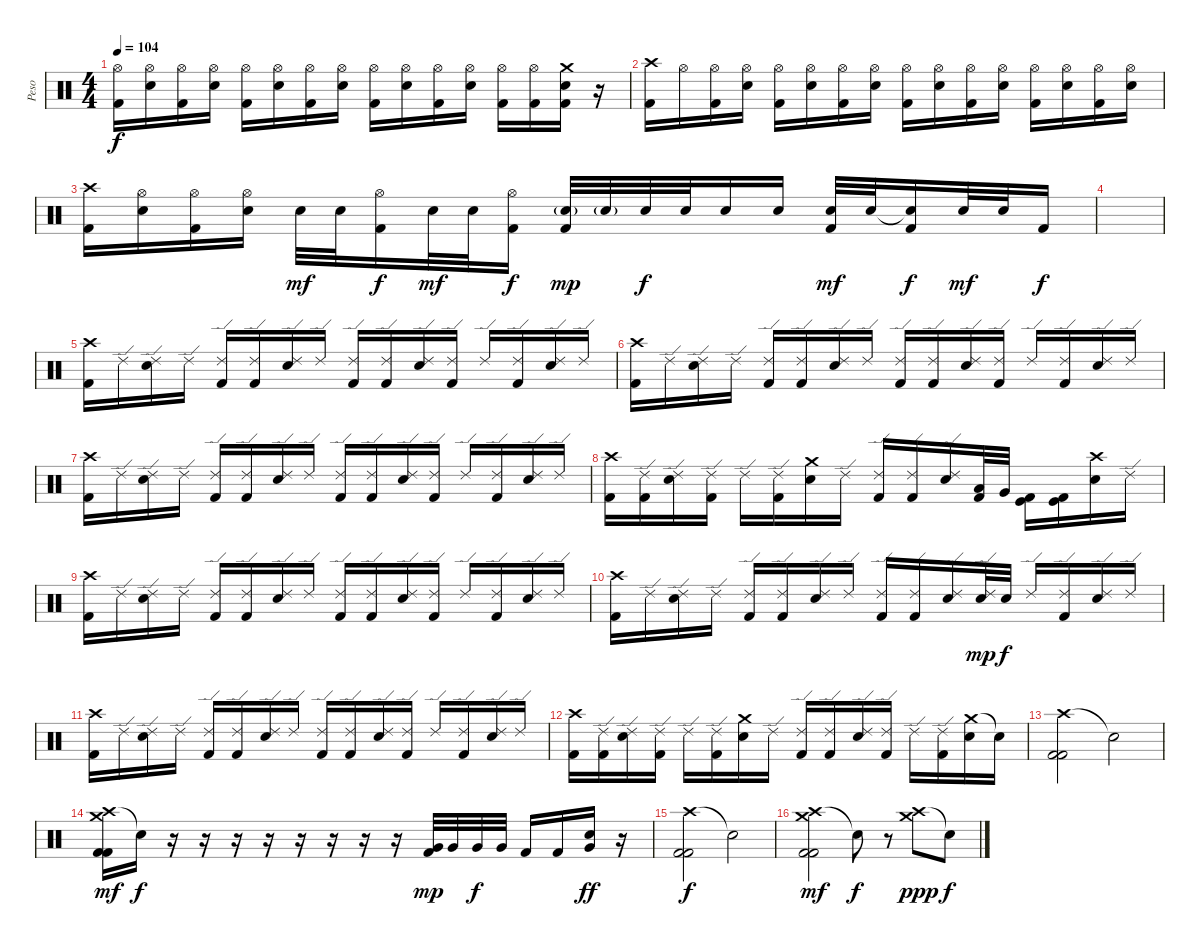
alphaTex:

\track ("Peso" "Peso") {instrument percussion}
\staff {score}
\articulation defaults
\ts (4 4)
\tempo 104
\clef neutral
\ks c
("Hi-Hat (open)" "Kick (hit) 2").16{dy f} ("Hi-Hat (open)" "Electric Snare (hit)").16 ("Hi-Hat (open)" "Kick (hit) 2").16 ("Hi-Hat (open)" "Electric Snare (hit)").16 ("Hi-Hat (open)" "Kick (hit) 2").16 ("Hi-Hat (open)" "Electric Snare (hit)").16 ("Hi-Hat (open)" "Kick (hit) 2").16 ("Hi-Hat (open)" "Electric Snare (hit)").16 ("Hi-Hat (open)" "Kick (hit) 2").16 ("Hi-Hat (open)" "Electric Snare (hit)").16 ("Hi-Hat (open)" "Kick (hit) 2").16 ("Hi-Hat (open)" "Electric Snare (hit)").16 ("Hi-Hat (open)" "Kick (hit) 2").16 ("Hi-Hat (open)" "Kick (hit) 2").16 ("Crash medium (hit)" "Electric Snare (hit)" "Kick (hit) 2").16 r.16 |
("Crash high (hit)" "Kick (hit) 2").16 "Hi-Hat (open)".16 ("Hi-Hat (open)" "Kick (hit) 2").16 ("Hi-Hat (open)" "Electric Snare (hit)").16 ("Hi-Hat (open)" "Kick (hit) 2").16 ("Hi-Hat (open)" "Electric Snare (hit)").16 ("Hi-Hat (open)" "Kick (hit) 2").16 ("Hi-Hat (open)" "Electric Snare (hit)").16 ("Hi-Hat (open)" "Kick (hit) 2").16 ("Hi-Hat (open)" "Electric Snare (hit)").16 ("Hi-Hat (open)" "Kick (hit) 2").16 ("Hi-Hat (open)" "Electric Snare (hit)").16 ("Hi-Hat (open)" "Kick (hit) 2").16 ("Hi-Hat (open)" "Electric Snare (hit)").16 ("Hi-Hat (open)" "Kick (hit) 2").16 ("Hi-Hat (open)" "Electric Snare (hit)").16 |
("Crash high (hit)" "Kick (hit) 2").16 ("Hi-Hat (open)" "Electric Snare (hit)").16 ("Hi-Hat (open)" "Kick (hit) 2").16 ("Hi-Hat (open)" "Electric Snare (hit)").16 "Electric Snare (hit)".32{dy mf} "Electric Snare (hit)".32 ("Hi-Hat (open)" "Kick (hit) 2").16{dy f} "Electric Snare (hit)".32{dy mf} "Electric Snare (hit)".32 ("Hi-Hat (open)" "Kick (hit) 2").16{dy f} ("Electric Snare (hit)"{g} "Kick (hit) 2").32{dy mp} "Electric Snare (hit)"{g}.32 "Electric Snare (hit)".32{dy f} "Electric Snare (hit)".32 "Electric Snare (hit)".16 "Electric Snare (hit)".16 ("Electric Snare (hit)" "Kick (hit) 2").32{dy mf} "Electric Snare (hit)".32 ("Snare (hit)"{t} "Kick (hit) 2").16{dy f} "Electric Snare (hit)".32{dy mf} "Electric Snare (hit)".32 "Kick (hit) 2".16{dy f} |
|
("Crash high (hit)" "Kick (hit) 2").16 "Ride (edge) 2".16 ("Ride (edge) 2" "Electric Snare (hit)").16 "Ride (edge) 2".16 ("Ride (edge) 2" "Kick (hit) 2").16 ("Ride (edge) 2" "Kick (hit) 2").16 ("Ride (edge) 2" "Electric Snare (hit)").16 "Ride (edge) 2".16 ("Ride (edge) 2" "Kick (hit) 2").16 ("Ride (edge) 2" "Kick (hit) 2").16 ("Ride (edge) 2" "Electric Snare (hit)").16 ("Ride (edge) 2" "Kick (hit) 2").16 "Ride (edge) 2".16 ("Ride (edge) 2" "Kick (hit) 2").16 ("Ride (edge) 2" "Electric Snare (hit)").16 "Ride (edge) 2".16 |
("Crash high (hit)" "Kick (hit) 2").16 "Ride (edge) 2".16 ("Ride (edge) 2" "Electric Snare (hit)").16 "Ride (edge) 2".16 ("Ride (edge) 2" "Kick (hit) 2").16 ("Ride (edge) 2" "Kick (hit) 2").16 ("Ride (edge) 2" "Electric Snare (hit)").16 "Ride (edge) 2".16 ("Ride (edge) 2" "Kick (hit) 2").16 ("Ride (edge) 2" "Kick (hit) 2").16 ("Ride (edge) 2" "Electric Snare (hit)").16 ("Ride (edge) 2" "Kick (hit) 2").16 "Ride (edge) 2".16 ("Ride (edge) 2" "Kick (hit) 2").16 ("Ride (edge) 2" "Electric Snare (hit)").16 "Ride (edge) 2".16 |
("Crash high (hit)" "Kick (hit) 2").16 "Ride (edge) 2".16 ("Ride (edge) 2" "Electric Snare (hit)").16 "Ride (edge) 2".16 ("Ride (edge) 2" "Kick (hit) 2").16 ("Ride (edge) 2" "Kick (hit) 2").16 ("Ride (edge) 2" "Electric Snare (hit)").16 "Ride (edge) 2".16 ("Ride (edge) 2" "Kick (hit) 2").16 ("Ride (edge) 2" "Kick (hit) 2").16 ("Ride (edge) 2" "Electric Snare (hit)").16 ("Ride (edge) 2" "Kick (hit) 2").16 "Ride (edge) 2".16 ("Ride (edge) 2" "Kick (hit) 2").16 ("Ride (edge) 2" "Electric Snare (hit)").16 "Ride (edge) 2".16 |
("Crash high (hit)" "Kick (hit) 2").16 ("Ride (edge) 2" "Kick (hit) 2").16 ("Ride (edge) 2" "Electric Snare (hit)").16 ("Ride (edge) 2" "Kick (hit) 2").16 "Ride (edge) 2".16 ("Ride (edge) 2" "Kick (hit) 2").16 ("Crash medium (hit)" "Electric Snare (hit)").16 "Ride (edge) 2".16 ("Ride (edge) 2" "Kick (hit) 2").16 ("Ride (edge) 2" "Kick (hit) 2").16 ("Ride (edge) 2" "Electric Snare (hit)").16 ("Low Tom (hit)" "Kick (hit) 2").32 "Very Low Tom (hit)".32 ("Kick (hit)" "Kick (hit) 2").16 ("Kick (hit)" "Kick (hit) 2").16 ("Crash high (hit)" "Electric Snare (hit)").16 "Ride (edge) 2".16 |
("Crash high (hit)" "Kick (hit) 2").16 "Ride (edge) 2".16 ("Ride (edge) 2" "Electric Snare (hit)").16 "Ride (edge) 2".16 ("Ride (edge) 2" "Kick (hit) 2").16 ("Ride (edge) 2" "Kick (hit) 2").16 ("Ride (edge) 2" "Electric Snare (hit)").16 "Ride (edge) 2".16 ("Ride (edge) 2" "Kick (hit) 2").16 ("Ride (edge) 2" "Kick (hit) 2").16 ("Ride (edge) 2" "Electric Snare (hit)").16 ("Ride (edge) 2" "Kick (hit) 2").16 "Ride (edge) 2".16 ("Ride (edge) 2" "Kick (hit) 2").16 ("Ride (edge) 2" "Electric Snare (hit)").16 "Ride (edge) 2".16 |
("Crash high (hit)" "Kick (hit) 2").16 "Ride (edge) 2".16 ("Ride (edge) 2" "Electric Snare (hit)").16 "Ride (edge) 2".16 ("Ride (edge) 2" "Kick (hit) 2").16 ("Ride (edge) 2" "Kick (hit) 2").16 ("Ride (edge) 2" "Electric Snare (hit)").16 "Ride (edge) 2".16 ("Ride (edge) 2" "Kick (hit) 2").16 ("Ride (edge) 2" "Kick (hit) 2").16 ("Ride (edge) 2" "Electric Snare (hit)").16 ("Ride (edge) 2" "Electric Snare (hit)").32{dy mp} "Electric Snare (hit)".32{dy f} "Ride (edge) 2".16 ("Ride (edge) 2" "Kick (hit) 2").16 ("Ride (edge) 2" "Electric Snare (hit)").16 "Ride (edge) 2".16 |
("Crash high (hit)" "Kick (hit) 2").16 "Ride (edge) 2".16 ("Ride (edge) 2" "Electric Snare (hit)").16 "Ride (edge) 2".16 ("Ride (edge) 2" "Kick (hit) 2").16 ("Ride (edge) 2" "Kick (hit) 2").16 ("Ride (edge) 2" "Electric Snare (hit)").16 "Ride (edge) 2".16 ("Ride (edge) 2" "Kick (hit) 2").16 ("Ride (edge) 2" "Kick (hit) 2").16 ("Ride (edge) 2" "Electric Snare (hit)").16 ("Ride (edge) 2" "Kick (hit) 2").16 "Ride (edge) 2".16 ("Ride (edge) 2" "Kick (hit) 2").16 ("Ride (edge) 2" "Electric Snare (hit)").16 "Ride (edge) 2".16 |
("Crash high (hit)" "Kick (hit) 2").16 ("Ride (edge) 2" "Kick (hit) 2").16 ("Ride (edge) 2" "Electric Snare (hit)").16 ("Ride (edge) 2" "Kick (hit) 2").16 "Ride (edge) 2".16 ("Ride (edge) 2" "Kick (hit) 2").16 ("Crash medium (hit)" "Electric Snare (hit)").16 "Ride (edge) 2".16 ("Ride (edge) 2" "Kick (hit) 2").16 ("Ride (edge) 2" "Kick (hit) 2").16 ("Ride (edge) 2" "Electric Snare (hit)").16 ("Ride (edge) 2" "Kick (hit) 2").16 "Ride (edge) 2".16 ("Ride (edge) 2" "Kick (hit) 2").16 ("Crash medium (hit)" "Electric Snare (hit)").16 "Snare (hit)"{t}.16 |
("Crash high (hit)" "Kick (hit) 2" "Kick (hit) 2").2 "Snare (hit)"{t}.2 |
("Crash high (hit)" "Crash medium (hit)" "Kick (hit) 2" "Kick (hit) 2").16{dy mf} "Snare (hit)"{t}.16{dy f} r.16 r.16 r.16 r.16 r.16 r.16 r.16 r.16 ("Very Low Tom (hit)" "Kick (hit) 2").32{dy mp} "Very Low Tom (hit)".32 "Very Low Tom (hit)".32{dy f} "Very Low Tom (hit)".32 "Kick (hit) 2".16 "Kick (hit) 2".16 ("Very Low Tom (hit)" "Electric Snare (hit)").16{dy ff} r.16 |
("Crash high (hit)" "Kick (hit) 2" "Kick (hit) 2").2{dy f} "Snare (hit)"{t}.2 |
("Crash high (hit)" "Crash medium (hit)" "Kick (hit) 2" "Kick (hit) 2").2{dy mf} "Snare (hit)"{t}.8{dy f} r.8 ("Crash high (hit)" "Crash medium (hit)").8{dy ppp volume 0} "Snare (hit)"{t}.8{dy f}
